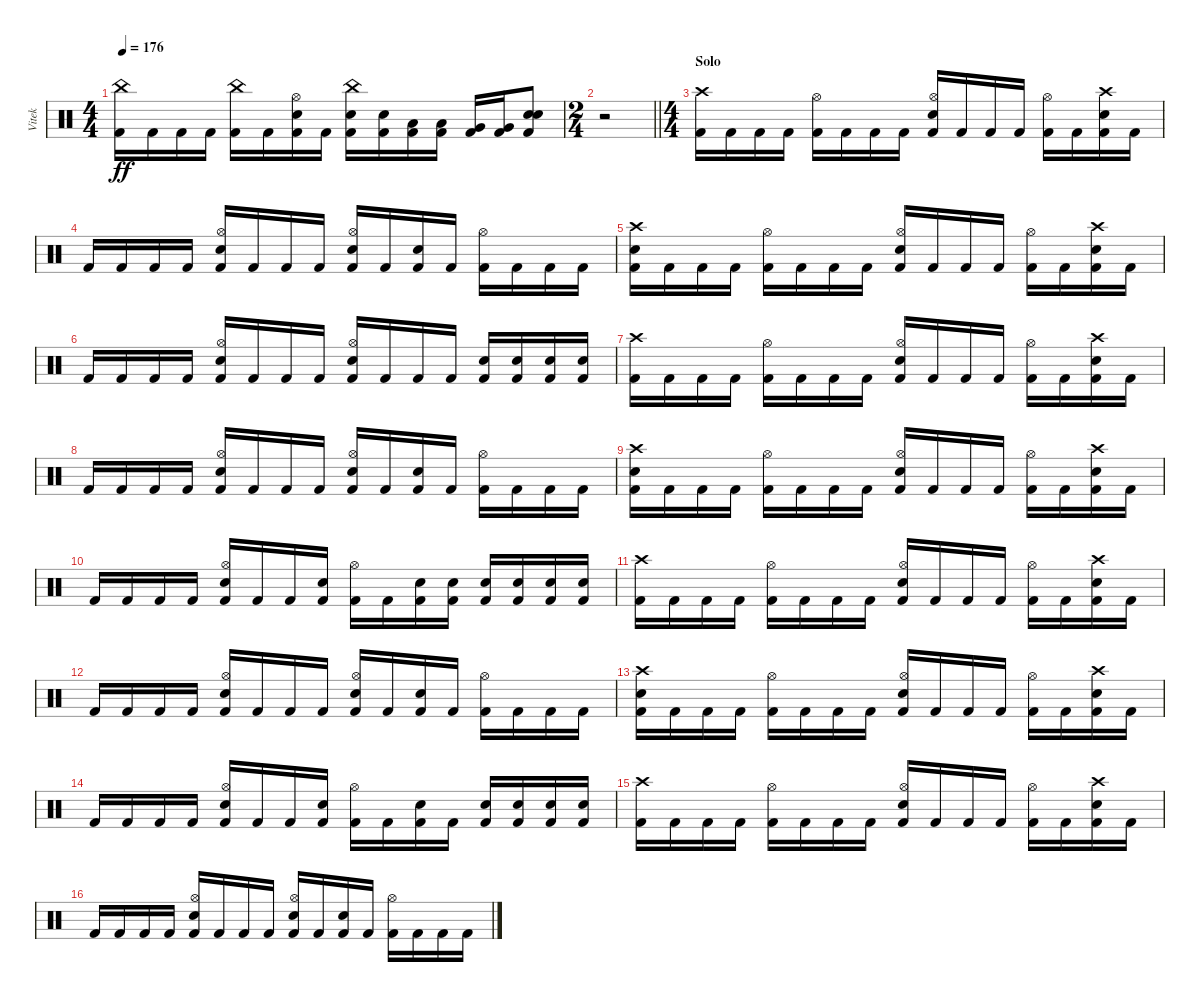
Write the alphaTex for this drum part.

\track ("Vitek" "Vitek") {instrument percussion}
\staff {score}
\articulation defaults
\ts (4 4)
\tempo 176
\clef neutral
\ks c
("China (hit)" "Kick (hit) 2").16{dy ff} "Kick (hit) 2".16 "Kick (hit) 2".16 "Kick (hit) 2".16 ("China (hit)" "Kick (hit) 2").16 "Kick (hit) 2".16 ("Hi-Hat (open)" "Electric Snare (hit)" "Kick (hit) 2").16 "Kick (hit) 2".16 ("China (hit)" "Electric Snare (hit)" "Kick (hit) 2").16 ("Electric Snare (hit)" "Kick (hit) 2").16 ("Low Tom (hit)" "Kick (hit) 2").16 ("Low Tom (hit)" "Kick (hit) 2").16 ("Very Low Tom (hit)" "Kick (hit) 2").16 ("Very Low Tom (hit)" "Kick (hit) 2").16 ("Electric Snare (hit)" "Electric Snare (hit)" "Kick (hit) 2").8 |
\ts (2 4)
\barLineRight lightlight
r.2 |
\ts (4 4)
\section ("" "Solo")
("Crash high (hit)" "Kick (hit) 2").16 "Kick (hit) 2".16 "Kick (hit) 2".16 "Kick (hit) 2".16 ("Hi-Hat (open)" "Kick (hit) 2").16 "Kick (hit) 2".16 "Kick (hit) 2".16 "Kick (hit) 2".16 ("Hi-Hat (open)" "Electric Snare (hit)" "Kick (hit) 2").16 "Kick (hit) 2".16 "Kick (hit) 2".16 "Kick (hit) 2".16 ("Hi-Hat (open)" "Kick (hit) 2").16 "Kick (hit) 2".16 ("Crash high (hit)" "Electric Snare (hit)" "Kick (hit) 2").16 "Kick (hit) 2".16 |
"Kick (hit) 2".16 "Kick (hit) 2".16 "Kick (hit) 2".16 "Kick (hit) 2".16 ("Hi-Hat (open)" "Electric Snare (hit)" "Kick (hit) 2").16 "Kick (hit) 2".16 "Kick (hit) 2".16 "Kick (hit) 2".16 ("Hi-Hat (open)" "Electric Snare (hit)" "Kick (hit) 2").16 "Kick (hit) 2".16 ("Electric Snare (hit)" "Kick (hit) 2").16 "Kick (hit) 2".16 ("Hi-Hat (open)" "Kick (hit) 2").16 "Kick (hit) 2".16 "Kick (hit) 2".16 "Kick (hit) 2".16 |
("Crash high (hit)" "Electric Snare (hit)" "Kick (hit) 2").16 "Kick (hit) 2".16 "Kick (hit) 2".16 "Kick (hit) 2".16 ("Hi-Hat (open)" "Kick (hit) 2").16 "Kick (hit) 2".16 "Kick (hit) 2".16 "Kick (hit) 2".16 ("Hi-Hat (open)" "Electric Snare (hit)" "Kick (hit) 2").16 "Kick (hit) 2".16 "Kick (hit) 2".16 "Kick (hit) 2".16 ("Hi-Hat (open)" "Kick (hit) 2").16 "Kick (hit) 2".16 ("Crash high (hit)" "Electric Snare (hit)" "Kick (hit) 2").16 "Kick (hit) 2".16 |
"Kick (hit) 2".16 "Kick (hit) 2".16 "Kick (hit) 2".16 "Kick (hit) 2".16 ("Hi-Hat (open)" "Electric Snare (hit)" "Kick (hit) 2").16 "Kick (hit) 2".16 "Kick (hit) 2".16 "Kick (hit) 2".16 ("Hi-Hat (open)" "Electric Snare (hit)" "Kick (hit) 2").16 "Kick (hit) 2".16 "Kick (hit) 2".16 "Kick (hit) 2".16 ("Electric Snare (hit)" "Kick (hit) 2").16 ("Electric Snare (hit)" "Kick (hit) 2").16 ("Electric Snare (hit)" "Kick (hit) 2").16 ("Electric Snare (hit)" "Kick (hit) 2").16 |
("Crash high (hit)" "Kick (hit) 2").16 "Kick (hit) 2".16 "Kick (hit) 2".16 "Kick (hit) 2".16 ("Hi-Hat (open)" "Kick (hit) 2").16 "Kick (hit) 2".16 "Kick (hit) 2".16 "Kick (hit) 2".16 ("Hi-Hat (open)" "Electric Snare (hit)" "Kick (hit) 2").16 "Kick (hit) 2".16 "Kick (hit) 2".16 "Kick (hit) 2".16 ("Hi-Hat (open)" "Kick (hit) 2").16 "Kick (hit) 2".16 ("Crash high (hit)" "Electric Snare (hit)" "Kick (hit) 2").16 "Kick (hit) 2".16 |
"Kick (hit) 2".16 "Kick (hit) 2".16 "Kick (hit) 2".16 "Kick (hit) 2".16 ("Hi-Hat (open)" "Electric Snare (hit)" "Kick (hit) 2").16 "Kick (hit) 2".16 "Kick (hit) 2".16 "Kick (hit) 2".16 ("Hi-Hat (open)" "Electric Snare (hit)" "Kick (hit) 2").16 "Kick (hit) 2".16 ("Electric Snare (hit)" "Kick (hit) 2").16 "Kick (hit) 2".16 ("Hi-Hat (open)" "Kick (hit) 2").16 "Kick (hit) 2".16 "Kick (hit) 2".16 "Kick (hit) 2".16 |
("Crash high (hit)" "Electric Snare (hit)" "Kick (hit) 2").16 "Kick (hit) 2".16 "Kick (hit) 2".16 "Kick (hit) 2".16 ("Hi-Hat (open)" "Kick (hit) 2").16 "Kick (hit) 2".16 "Kick (hit) 2".16 "Kick (hit) 2".16 ("Hi-Hat (open)" "Electric Snare (hit)" "Kick (hit) 2").16 "Kick (hit) 2".16 "Kick (hit) 2".16 "Kick (hit) 2".16 ("Hi-Hat (open)" "Kick (hit) 2").16 "Kick (hit) 2".16 ("Crash high (hit)" "Electric Snare (hit)" "Kick (hit) 2").16 "Kick (hit) 2".16 |
"Kick (hit) 2".16 "Kick (hit) 2".16 "Kick (hit) 2".16 "Kick (hit) 2".16 ("Hi-Hat (open)" "Electric Snare (hit)" "Kick (hit) 2").16 "Kick (hit) 2".16 "Kick (hit) 2".16 ("Electric Snare (hit)" "Kick (hit) 2").16 ("Hi-Hat (open)" "Kick (hit) 2").16 "Kick (hit) 2".16 ("Electric Snare (hit)" "Kick (hit) 2").16 ("Electric Snare (hit)" "Kick (hit) 2").16 ("Electric Snare (hit)" "Kick (hit) 2").16 ("Electric Snare (hit)" "Kick (hit) 2").16 ("Electric Snare (hit)" "Kick (hit) 2").16 ("Electric Snare (hit)" "Kick (hit) 2").16 |
("Crash high (hit)" "Kick (hit) 2").16 "Kick (hit) 2".16 "Kick (hit) 2".16 "Kick (hit) 2".16 ("Hi-Hat (open)" "Kick (hit) 2").16 "Kick (hit) 2".16 "Kick (hit) 2".16 "Kick (hit) 2".16 ("Hi-Hat (open)" "Electric Snare (hit)" "Kick (hit) 2").16 "Kick (hit) 2".16 "Kick (hit) 2".16 "Kick (hit) 2".16 ("Hi-Hat (open)" "Kick (hit) 2").16 "Kick (hit) 2".16 ("Crash high (hit)" "Electric Snare (hit)" "Kick (hit) 2").16 "Kick (hit) 2".16 |
"Kick (hit) 2".16 "Kick (hit) 2".16 "Kick (hit) 2".16 "Kick (hit) 2".16 ("Hi-Hat (open)" "Electric Snare (hit)" "Kick (hit) 2").16 "Kick (hit) 2".16 "Kick (hit) 2".16 "Kick (hit) 2".16 ("Hi-Hat (open)" "Electric Snare (hit)" "Kick (hit) 2").16 "Kick (hit) 2".16 ("Electric Snare (hit)" "Kick (hit) 2").16 "Kick (hit) 2".16 ("Hi-Hat (open)" "Kick (hit) 2").16 "Kick (hit) 2".16 "Kick (hit) 2".16 "Kick (hit) 2".16 |
("Crash high (hit)" "Electric Snare (hit)" "Kick (hit) 2").16 "Kick (hit) 2".16 "Kick (hit) 2".16 "Kick (hit) 2".16 ("Hi-Hat (open)" "Kick (hit) 2").16 "Kick (hit) 2".16 "Kick (hit) 2".16 "Kick (hit) 2".16 ("Hi-Hat (open)" "Electric Snare (hit)" "Kick (hit) 2").16 "Kick (hit) 2".16 "Kick (hit) 2".16 "Kick (hit) 2".16 ("Hi-Hat (open)" "Kick (hit) 2").16 "Kick (hit) 2".16 ("Crash high (hit)" "Electric Snare (hit)" "Kick (hit) 2").16 "Kick (hit) 2".16 |
"Kick (hit) 2".16 "Kick (hit) 2".16 "Kick (hit) 2".16 "Kick (hit) 2".16 ("Hi-Hat (open)" "Electric Snare (hit)" "Kick (hit) 2").16 "Kick (hit) 2".16 "Kick (hit) 2".16 ("Electric Snare (hit)" "Kick (hit) 2").16 ("Hi-Hat (open)" "Kick (hit) 2").16 "Kick (hit) 2".16 ("Electric Snare (hit)" "Kick (hit) 2").16 "Kick (hit) 2".16 ("Electric Snare (hit)" "Kick (hit) 2").16 ("Electric Snare (hit)" "Kick (hit) 2").16 ("Electric Snare (hit)" "Kick (hit) 2").16 ("Electric Snare (hit)" "Kick (hit) 2").16 |
("Crash high (hit)" "Kick (hit) 2").16 "Kick (hit) 2".16 "Kick (hit) 2".16 "Kick (hit) 2".16 ("Hi-Hat (open)" "Kick (hit) 2").16 "Kick (hit) 2".16 "Kick (hit) 2".16 "Kick (hit) 2".16 ("Hi-Hat (open)" "Electric Snare (hit)" "Kick (hit) 2").16 "Kick (hit) 2".16 "Kick (hit) 2".16 "Kick (hit) 2".16 ("Hi-Hat (open)" "Kick (hit) 2").16 "Kick (hit) 2".16 ("Crash high (hit)" "Electric Snare (hit)" "Kick (hit) 2").16 "Kick (hit) 2".16 |
"Kick (hit) 2".16 "Kick (hit) 2".16 "Kick (hit) 2".16 "Kick (hit) 2".16 ("Hi-Hat (open)" "Electric Snare (hit)" "Kick (hit) 2").16 "Kick (hit) 2".16 "Kick (hit) 2".16 "Kick (hit) 2".16 ("Hi-Hat (open)" "Electric Snare (hit)" "Kick (hit) 2").16 "Kick (hit) 2".16 ("Electric Snare (hit)" "Kick (hit) 2").16 "Kick (hit) 2".16 ("Hi-Hat (open)" "Kick (hit) 2").16 "Kick (hit) 2".16 "Kick (hit) 2".16 "Kick (hit) 2".16
